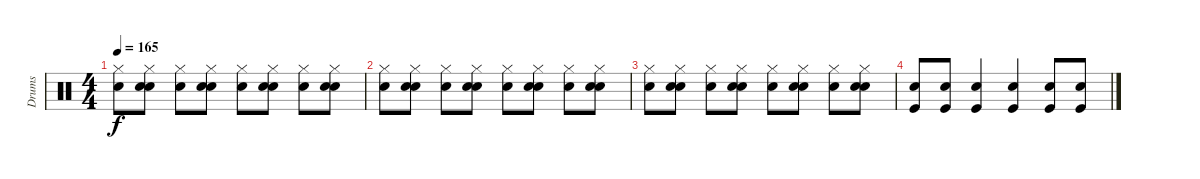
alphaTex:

\track ("Drums" "Drums") {instrument percussion}
\staff {score}
\articulation defaults
\ts (4 4)
\tempo 165
\clef neutral
\ks c
("Hi-Hat (closed)" "Electric Snare (hit)").8{dy f} ("Snare (hit) 2" "Electric Snare (hit)" "Hi-Hat (closed)").8 ("Hi-Hat (closed)" "Electric Snare (hit)").8 ("Snare (hit) 2" "Hi-Hat (closed)" "Electric Snare (hit)").8 ("Hi-Hat (closed)" "Electric Snare (hit)").8 ("Snare (hit) 2" "Hi-Hat (closed)" "Electric Snare (hit)").8 ("Hi-Hat (closed)" "Electric Snare (hit)").8 ("Snare (hit) 2" "Hi-Hat (closed)" "Electric Snare (hit)").8 |
("Hi-Hat (closed)" "Electric Snare (hit)").8 ("Snare (hit) 2" "Electric Snare (hit)" "Hi-Hat (closed)").8 ("Hi-Hat (closed)" "Electric Snare (hit)").8 ("Snare (hit) 2" "Hi-Hat (closed)" "Electric Snare (hit)").8 ("Hi-Hat (closed)" "Electric Snare (hit)").8 ("Snare (hit) 2" "Hi-Hat (closed)" "Electric Snare (hit)").8 ("Hi-Hat (closed)" "Electric Snare (hit)").8 ("Snare (hit) 2" "Hi-Hat (closed)" "Electric Snare (hit)").8 |
("Hi-Hat (closed)" "Electric Snare (hit)").8 ("Snare (hit) 2" "Electric Snare (hit)" "Hi-Hat (closed)").8 ("Hi-Hat (closed)" "Electric Snare (hit)").8 ("Snare (hit) 2" "Hi-Hat (closed)" "Electric Snare (hit)").8 ("Hi-Hat (closed)" "Electric Snare (hit)").8 ("Snare (hit) 2" "Hi-Hat (closed)" "Electric Snare (hit)").8 ("Hi-Hat (closed)" "Electric Snare (hit)").8 ("Snare (hit) 2" "Hi-Hat (closed)" "Electric Snare (hit)").8 |
("Kick (hit)" "Snare (hit) 2").8 ("Kick (hit)" "Snare (hit) 2").8 ("Kick (hit)" "Snare (hit) 2").4 ("Kick (hit)" "Snare (hit) 2").4 ("Kick (hit)" "Snare (hit) 2").8 ("Kick (hit)" "Snare (hit) 2").8
